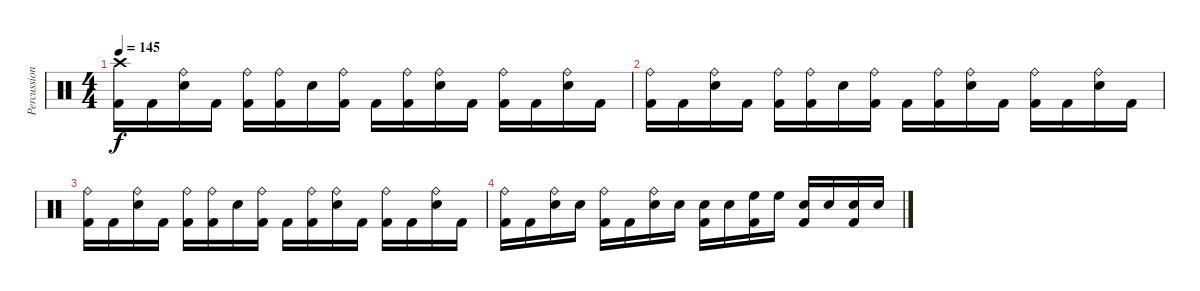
\track ("Percussion" "Percussion") {instrument percussion}
\staff {score}
\articulation defaults
\ts (4 4)
\tempo 145
\clef neutral
\ks c
("Kick (hit) 2" "Crash high (hit)").16{dy f volume 3} "Kick (hit) 2".16 ("Electric Snare (hit)" "Ride (bell)").16 "Kick (hit) 2".16 ("Kick (hit) 2" "Ride (bell)").16 ("Kick (hit) 2" "Ride (bell)").16 "Electric Snare (hit)".16 ("Kick (hit) 2" "Ride (bell)").16 "Kick (hit) 2".16 ("Kick (hit) 2" "Ride (bell)").16 ("Electric Snare (hit)" "Ride (bell)").16 "Kick (hit) 2".16 ("Kick (hit) 2" "Ride (bell)").16 "Kick (hit) 2".16 ("Electric Snare (hit)" "Ride (bell)").16 "Kick (hit) 2".16 |
("Kick (hit) 2" "Ride (bell)").16 "Kick (hit) 2".16 ("Electric Snare (hit)" "Ride (bell)").16 "Kick (hit) 2".16 ("Kick (hit) 2" "Ride (bell)").16 ("Kick (hit) 2" "Ride (bell)").16 "Electric Snare (hit)".16 ("Kick (hit) 2" "Ride (bell)").16 "Kick (hit) 2".16 ("Kick (hit) 2" "Ride (bell)").16 ("Electric Snare (hit)" "Ride (bell)").16 "Kick (hit) 2".16 ("Kick (hit) 2" "Ride (bell)").16 "Kick (hit) 2".16 ("Electric Snare (hit)" "Ride (bell)").16 "Kick (hit) 2".16 |
("Kick (hit) 2" "Ride (bell)").16{volume 0} "Kick (hit) 2".16 ("Electric Snare (hit)" "Ride (bell)").16 "Kick (hit) 2".16 ("Kick (hit) 2" "Ride (bell)").16 ("Kick (hit) 2" "Ride (bell)").16 "Electric Snare (hit)".16 ("Kick (hit) 2" "Ride (bell)").16 "Kick (hit) 2".16 ("Kick (hit) 2" "Ride (bell)").16 ("Electric Snare (hit)" "Ride (bell)").16 "Kick (hit) 2".16 ("Kick (hit) 2" "Ride (bell)").16 "Kick (hit) 2".16 ("Electric Snare (hit)" "Ride (bell)").16 "Kick (hit) 2".16 |
("Kick (hit) 2" "Ride (bell)").16 "Kick (hit) 2".16 ("Electric Snare (hit)" "Ride (bell)").16 "Electric Snare (hit)".16 ("Kick (hit) 2" "Ride (bell)").16 "Kick (hit) 2".16 ("Electric Snare (hit)" "Ride (bell)").16 "Electric Snare (hit)".16 ("Electric Snare (hit)" "Kick (hit) 2").16 "Electric Snare (hit)".16 ("High Floor Tom (hit)" "Kick (hit) 2").16 "High Floor Tom (hit)".16 ("Electric Snare (hit)" "Kick (hit) 2").16 "Electric Snare (hit)".16 ("Electric Snare (hit)" "Kick (hit) 2").16 "Electric Snare (hit)".16
